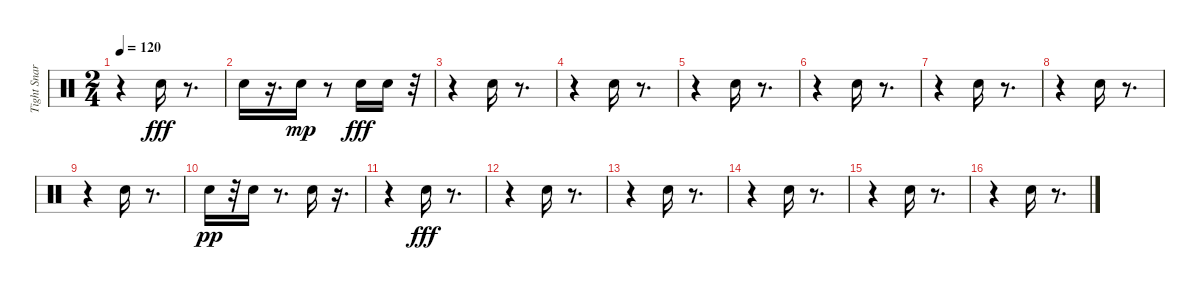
\track ("Tight Snare (1) (1) (1) (1)" "Tight Snar") {instrument percussion}
\staff {score}
\articulation defaults
\ts (2 4)
\tempo 120
\clef neutral
\ks c
r.4{dy fff} "Electric Snare (hit)".16 r.8{d} |
"Electric Snare (hit)".16 r.16{d} "Electric Snare (hit)".16{dy mp} r.8 "Electric Snare (hit)".16{dy fff} "Electric Snare (hit)".16 r.32 |
r.4 "Electric Snare (hit)".16 r.8{d} |
r.4 "Electric Snare (hit)".16 r.8{d} |
r.4 "Electric Snare (hit)".16 r.8{d} |
r.4 "Electric Snare (hit)".16 r.8{d} |
r.4 "Electric Snare (hit)".16 r.8{d} |
r.4 "Electric Snare (hit)".16 r.8{d} |
r.4 "Electric Snare (hit)".16 r.8{d} |
"Electric Snare (hit)".16{dy pp} r.32 "Electric Snare (hit)".16 r.8{d} "Electric Snare (hit)".16 r.16{d} |
r.4 "Electric Snare (hit)".16{dy fff} r.8{d} |
r.4 "Electric Snare (hit)".16 r.8{d} |
r.4 "Electric Snare (hit)".16 r.8{d} |
r.4 "Electric Snare (hit)".16 r.8{d} |
r.4 "Electric Snare (hit)".16 r.8{d} |
r.4 "Electric Snare (hit)".16 r.8{d}
